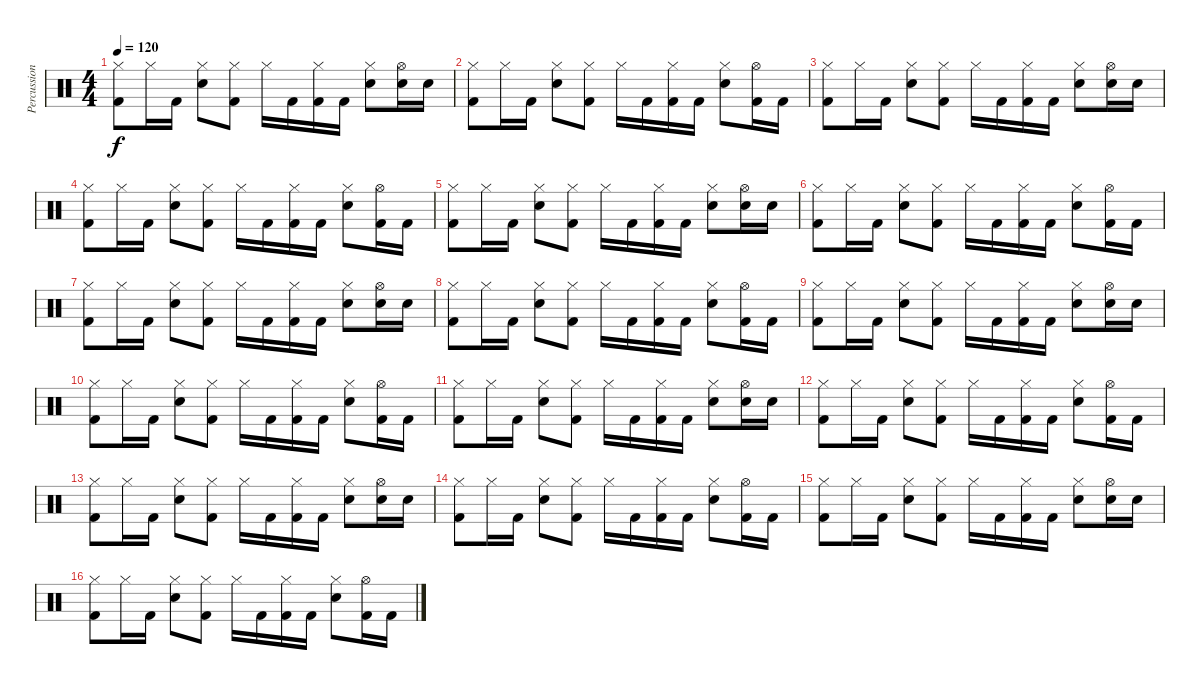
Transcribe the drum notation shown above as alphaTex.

\track ("Percussion" "Percussion") {instrument percussion}
\staff {score}
\articulation defaults
\ts (4 4)
\tempo 120
\clef neutral
\ks c
("Hi-Hat (closed)" "Kick (hit) 2").8{dy f} "Hi-Hat (closed)".16 "Kick (hit) 2".16 ("Hi-Hat (closed)" "Snare (hit) 2").8 ("Hi-Hat (closed)" "Kick (hit) 2").8 "Hi-Hat (closed)".16 "Kick (hit) 2".16 ("Hi-Hat (closed)" "Kick (hit) 2").16 "Kick (hit) 2".16 ("Hi-Hat (closed)" "Snare (hit) 2").8 ("Hi-Hat (open)" "Snare (hit) 2").16 "Snare (hit) 2".16 |
("Hi-Hat (closed)" "Kick (hit) 2").8 "Hi-Hat (closed)".16 "Kick (hit) 2".16 ("Hi-Hat (closed)" "Snare (hit) 2").8 ("Hi-Hat (closed)" "Kick (hit) 2").8 "Hi-Hat (closed)".16 "Kick (hit) 2".16 ("Hi-Hat (closed)" "Kick (hit) 2").16 "Kick (hit) 2".16 ("Hi-Hat (closed)" "Snare (hit) 2").8 ("Hi-Hat (open)" "Kick (hit) 2").16 "Kick (hit) 2".16 |
("Hi-Hat (closed)" "Kick (hit) 2").8 "Hi-Hat (closed)".16 "Kick (hit) 2".16 ("Hi-Hat (closed)" "Snare (hit) 2").8 ("Hi-Hat (closed)" "Kick (hit) 2").8 "Hi-Hat (closed)".16 "Kick (hit) 2".16 ("Hi-Hat (closed)" "Kick (hit) 2").16 "Kick (hit) 2".16 ("Hi-Hat (closed)" "Snare (hit) 2").8 ("Hi-Hat (open)" "Snare (hit) 2").16 "Snare (hit) 2".16 |
("Hi-Hat (closed)" "Kick (hit) 2").8 "Hi-Hat (closed)".16 "Kick (hit) 2".16 ("Hi-Hat (closed)" "Snare (hit) 2").8 ("Hi-Hat (closed)" "Kick (hit) 2").8 "Hi-Hat (closed)".16 "Kick (hit) 2".16 ("Hi-Hat (closed)" "Kick (hit) 2").16 "Kick (hit) 2".16 ("Hi-Hat (closed)" "Snare (hit) 2").8 ("Hi-Hat (open)" "Kick (hit) 2").16 "Kick (hit) 2".16 |
("Hi-Hat (closed)" "Kick (hit) 2").8 "Hi-Hat (closed)".16 "Kick (hit) 2".16 ("Hi-Hat (closed)" "Snare (hit) 2").8 ("Hi-Hat (closed)" "Kick (hit) 2").8 "Hi-Hat (closed)".16 "Kick (hit) 2".16 ("Hi-Hat (closed)" "Kick (hit) 2").16 "Kick (hit) 2".16 ("Hi-Hat (closed)" "Snare (hit) 2").8 ("Hi-Hat (open)" "Snare (hit) 2").16 "Snare (hit) 2".16 |
("Hi-Hat (closed)" "Kick (hit) 2").8 "Hi-Hat (closed)".16 "Kick (hit) 2".16 ("Hi-Hat (closed)" "Snare (hit) 2").8 ("Hi-Hat (closed)" "Kick (hit) 2").8 "Hi-Hat (closed)".16 "Kick (hit) 2".16 ("Hi-Hat (closed)" "Kick (hit) 2").16 "Kick (hit) 2".16 ("Hi-Hat (closed)" "Snare (hit) 2").8 ("Hi-Hat (open)" "Kick (hit) 2").16 "Kick (hit) 2".16 |
("Hi-Hat (closed)" "Kick (hit) 2").8 "Hi-Hat (closed)".16 "Kick (hit) 2".16 ("Hi-Hat (closed)" "Snare (hit) 2").8 ("Hi-Hat (closed)" "Kick (hit) 2").8 "Hi-Hat (closed)".16 "Kick (hit) 2".16 ("Hi-Hat (closed)" "Kick (hit) 2").16 "Kick (hit) 2".16 ("Hi-Hat (closed)" "Snare (hit) 2").8 ("Hi-Hat (open)" "Snare (hit) 2").16 "Snare (hit) 2".16 |
("Hi-Hat (closed)" "Kick (hit) 2").8 "Hi-Hat (closed)".16 "Kick (hit) 2".16 ("Hi-Hat (closed)" "Snare (hit) 2").8 ("Hi-Hat (closed)" "Kick (hit) 2").8 "Hi-Hat (closed)".16 "Kick (hit) 2".16 ("Hi-Hat (closed)" "Kick (hit) 2").16 "Kick (hit) 2".16 ("Hi-Hat (closed)" "Snare (hit) 2").8 ("Hi-Hat (open)" "Kick (hit) 2").16 "Kick (hit) 2".16 |
("Hi-Hat (closed)" "Kick (hit) 2").8 "Hi-Hat (closed)".16 "Kick (hit) 2".16 ("Hi-Hat (closed)" "Snare (hit) 2").8 ("Hi-Hat (closed)" "Kick (hit) 2").8 "Hi-Hat (closed)".16 "Kick (hit) 2".16 ("Hi-Hat (closed)" "Kick (hit) 2").16 "Kick (hit) 2".16 ("Hi-Hat (closed)" "Snare (hit) 2").8 ("Hi-Hat (open)" "Snare (hit) 2").16 "Snare (hit) 2".16 |
("Hi-Hat (closed)" "Kick (hit) 2").8 "Hi-Hat (closed)".16 "Kick (hit) 2".16 ("Hi-Hat (closed)" "Snare (hit) 2").8 ("Hi-Hat (closed)" "Kick (hit) 2").8 "Hi-Hat (closed)".16 "Kick (hit) 2".16 ("Hi-Hat (closed)" "Kick (hit) 2").16 "Kick (hit) 2".16 ("Hi-Hat (closed)" "Snare (hit) 2").8 ("Hi-Hat (open)" "Kick (hit) 2").16 "Kick (hit) 2".16 |
("Hi-Hat (closed)" "Kick (hit) 2").8 "Hi-Hat (closed)".16 "Kick (hit) 2".16 ("Hi-Hat (closed)" "Snare (hit) 2").8 ("Hi-Hat (closed)" "Kick (hit) 2").8 "Hi-Hat (closed)".16 "Kick (hit) 2".16 ("Hi-Hat (closed)" "Kick (hit) 2").16 "Kick (hit) 2".16 ("Hi-Hat (closed)" "Snare (hit) 2").8 ("Hi-Hat (open)" "Snare (hit) 2").16 "Snare (hit) 2".16 |
("Hi-Hat (closed)" "Kick (hit) 2").8 "Hi-Hat (closed)".16 "Kick (hit) 2".16 ("Hi-Hat (closed)" "Snare (hit) 2").8 ("Hi-Hat (closed)" "Kick (hit) 2").8 "Hi-Hat (closed)".16 "Kick (hit) 2".16 ("Hi-Hat (closed)" "Kick (hit) 2").16 "Kick (hit) 2".16 ("Hi-Hat (closed)" "Snare (hit) 2").8 ("Hi-Hat (open)" "Kick (hit) 2").16 "Kick (hit) 2".16 |
("Hi-Hat (closed)" "Kick (hit) 2").8 "Hi-Hat (closed)".16 "Kick (hit) 2".16 ("Hi-Hat (closed)" "Snare (hit) 2").8 ("Hi-Hat (closed)" "Kick (hit) 2").8 "Hi-Hat (closed)".16 "Kick (hit) 2".16 ("Hi-Hat (closed)" "Kick (hit) 2").16 "Kick (hit) 2".16 ("Hi-Hat (closed)" "Snare (hit) 2").8 ("Hi-Hat (open)" "Snare (hit) 2").16 "Snare (hit) 2".16 |
("Hi-Hat (closed)" "Kick (hit) 2").8 "Hi-Hat (closed)".16 "Kick (hit) 2".16 ("Hi-Hat (closed)" "Snare (hit) 2").8 ("Hi-Hat (closed)" "Kick (hit) 2").8 "Hi-Hat (closed)".16 "Kick (hit) 2".16 ("Hi-Hat (closed)" "Kick (hit) 2").16 "Kick (hit) 2".16 ("Hi-Hat (closed)" "Snare (hit) 2").8 ("Hi-Hat (open)" "Kick (hit) 2").16 "Kick (hit) 2".16 |
("Hi-Hat (closed)" "Kick (hit) 2").8 "Hi-Hat (closed)".16 "Kick (hit) 2".16 ("Hi-Hat (closed)" "Snare (hit) 2").8 ("Hi-Hat (closed)" "Kick (hit) 2").8 "Hi-Hat (closed)".16 "Kick (hit) 2".16 ("Hi-Hat (closed)" "Kick (hit) 2").16 "Kick (hit) 2".16 ("Hi-Hat (closed)" "Snare (hit) 2").8 ("Hi-Hat (open)" "Snare (hit) 2").16 "Snare (hit) 2".16 |
("Hi-Hat (closed)" "Kick (hit) 2").8 "Hi-Hat (closed)".16 "Kick (hit) 2".16 ("Hi-Hat (closed)" "Snare (hit) 2").8 ("Hi-Hat (closed)" "Kick (hit) 2").8 "Hi-Hat (closed)".16 "Kick (hit) 2".16 ("Hi-Hat (closed)" "Kick (hit) 2").16 "Kick (hit) 2".16 ("Hi-Hat (closed)" "Snare (hit) 2").8 ("Hi-Hat (open)" "Kick (hit) 2").16 "Kick (hit) 2".16
